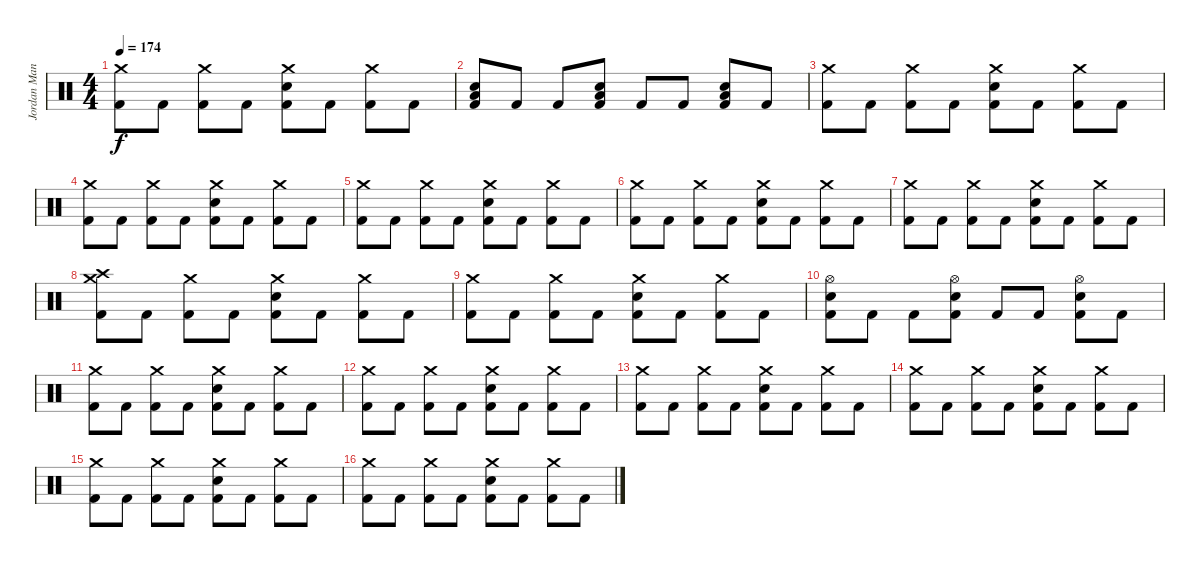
\track ("Jordan Manchino (Drums)" "Jordan Man") {instrument percussion}
\staff {score}
\articulation defaults
\ts (4 4)
\tempo 174
\clef neutral
\ks c
("Crash medium (hit)" "Kick (hit) 2").8{dy f} "Kick (hit) 2".8 ("Crash medium (hit)" "Kick (hit) 2").8 "Kick (hit) 2".8 ("Crash medium (hit)" "Snare (hit) 2" "Kick (hit) 2").8 "Kick (hit) 2".8 ("Crash medium (hit)" "Kick (hit) 2").8 "Kick (hit) 2".8 |
("Low Floor Tom (hit)" "Snare (hit) 2" "Kick (hit) 2").8 "Kick (hit) 2".8 "Kick (hit) 2".8 ("Low Floor Tom (hit)" "Snare (hit) 2" "Kick (hit) 2").8 "Kick (hit) 2".8 "Kick (hit) 2".8 ("Low Floor Tom (hit)" "Snare (hit) 2" "Kick (hit) 2").8 "Kick (hit) 2".8 |
("Crash medium (hit)" "Kick (hit) 2").8 "Kick (hit) 2".8 ("Crash medium (hit)" "Kick (hit) 2").8 "Kick (hit) 2".8 ("Crash medium (hit)" "Snare (hit) 2" "Kick (hit) 2").8 "Kick (hit) 2".8 ("Crash medium (hit)" "Kick (hit) 2").8 "Kick (hit) 2".8 |
("Crash medium (hit)" "Kick (hit) 2").8 "Kick (hit) 2".8 ("Crash medium (hit)" "Kick (hit) 2").8 "Kick (hit) 2".8 ("Crash medium (hit)" "Snare (hit) 2" "Kick (hit) 2").8 "Kick (hit) 2".8 ("Crash medium (hit)" "Kick (hit) 2").8 "Kick (hit) 2".8 |
("Crash medium (hit)" "Kick (hit) 2").8 "Kick (hit) 2".8 ("Crash medium (hit)" "Kick (hit) 2").8 "Kick (hit) 2".8 ("Crash medium (hit)" "Snare (hit) 2" "Kick (hit) 2").8 "Kick (hit) 2".8 ("Crash medium (hit)" "Kick (hit) 2").8 "Kick (hit) 2".8 |
("Crash medium (hit)" "Kick (hit) 2").8 "Kick (hit) 2".8 ("Crash medium (hit)" "Kick (hit) 2").8 "Kick (hit) 2".8 ("Crash medium (hit)" "Snare (hit) 2" "Kick (hit) 2").8 "Kick (hit) 2".8 ("Crash medium (hit)" "Kick (hit) 2").8 "Kick (hit) 2".8 |
("Crash medium (hit)" "Kick (hit) 2").8 "Kick (hit) 2".8 ("Crash medium (hit)" "Kick (hit) 2").8 "Kick (hit) 2".8 ("Crash medium (hit)" "Snare (hit) 2" "Kick (hit) 2").8 "Kick (hit) 2".8 ("Crash medium (hit)" "Kick (hit) 2").8 "Kick (hit) 2".8 |
("Crash high (hit)" "Crash medium (hit)" "Kick (hit) 2").8 "Kick (hit) 2".8 ("Crash medium (hit)" "Kick (hit) 2").8 "Kick (hit) 2".8 ("Crash medium (hit)" "Snare (hit) 2" "Kick (hit) 2").8 "Kick (hit) 2".8 ("Crash medium (hit)" "Kick (hit) 2").8 "Kick (hit) 2".8 |
("Crash medium (hit)" "Kick (hit) 2").8 "Kick (hit) 2".8 ("Crash medium (hit)" "Kick (hit) 2").8 "Kick (hit) 2".8 ("Crash medium (hit)" "Snare (hit) 2" "Kick (hit) 2").8 "Kick (hit) 2".8 ("Crash medium (hit)" "Kick (hit) 2").8 "Kick (hit) 2".8 |
("Hi-Hat (open)" "Snare (hit) 2" "Kick (hit) 2").8 "Kick (hit) 2".8 "Kick (hit) 2".8 ("Hi-Hat (open)" "Snare (hit) 2" "Kick (hit) 2").8 "Kick (hit) 2".8 "Kick (hit) 2".8 ("Hi-Hat (open)" "Snare (hit) 2" "Kick (hit) 2").8 "Kick (hit) 2".8 |
("Crash medium (hit)" "Kick (hit) 2").8 "Kick (hit) 2".8 ("Crash medium (hit)" "Kick (hit) 2").8 "Kick (hit) 2".8 ("Crash medium (hit)" "Snare (hit) 2" "Kick (hit) 2").8 "Kick (hit) 2".8 ("Crash medium (hit)" "Kick (hit) 2").8 "Kick (hit) 2".8 |
("Crash medium (hit)" "Kick (hit) 2").8 "Kick (hit) 2".8 ("Crash medium (hit)" "Kick (hit) 2").8 "Kick (hit) 2".8 ("Crash medium (hit)" "Snare (hit) 2" "Kick (hit) 2").8 "Kick (hit) 2".8 ("Crash medium (hit)" "Kick (hit) 2").8 "Kick (hit) 2".8 |
("Crash medium (hit)" "Kick (hit) 2").8 "Kick (hit) 2".8 ("Crash medium (hit)" "Kick (hit) 2").8 "Kick (hit) 2".8 ("Crash medium (hit)" "Snare (hit) 2" "Kick (hit) 2").8 "Kick (hit) 2".8 ("Crash medium (hit)" "Kick (hit) 2").8 "Kick (hit) 2".8 |
("Crash medium (hit)" "Kick (hit) 2").8 "Kick (hit) 2".8 ("Crash medium (hit)" "Kick (hit) 2").8 "Kick (hit) 2".8 ("Crash medium (hit)" "Snare (hit) 2" "Kick (hit) 2").8 "Kick (hit) 2".8 ("Crash medium (hit)" "Kick (hit) 2").8 "Kick (hit) 2".8 |
("Crash medium (hit)" "Kick (hit) 2").8 "Kick (hit) 2".8 ("Crash medium (hit)" "Kick (hit) 2").8 "Kick (hit) 2".8 ("Crash medium (hit)" "Snare (hit) 2" "Kick (hit) 2").8 "Kick (hit) 2".8 ("Crash medium (hit)" "Kick (hit) 2").8 "Kick (hit) 2".8 |
("Crash medium (hit)" "Kick (hit) 2").8 "Kick (hit) 2".8 ("Crash medium (hit)" "Kick (hit) 2").8 "Kick (hit) 2".8 ("Crash medium (hit)" "Snare (hit) 2" "Kick (hit) 2").8 "Kick (hit) 2".8 ("Crash medium (hit)" "Kick (hit) 2").8 "Kick (hit) 2".8
